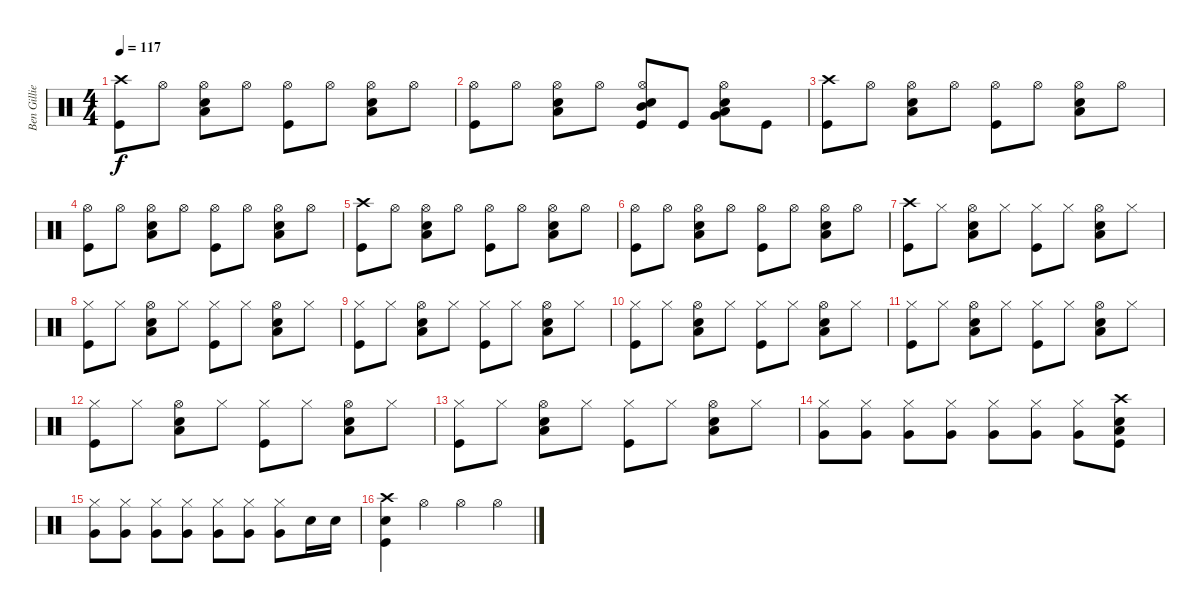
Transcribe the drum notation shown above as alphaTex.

\track ("Ben Gillies" "Ben Gillie") {instrument percussion}
\staff {score}
\articulation defaults
\ts (4 4)
\tempo 117
\clef neutral
\ks c
("Crash high (hit)" "Kick (hit)").8{dy f} "Hi-Hat (open)".8 ("Snare (hit) 2" "Hi-Hat (open)" "Low Tom (hit)").8 "Hi-Hat (open)".8 ("Hi-Hat (open)" "Kick (hit)").8 "Hi-Hat (open)".8 ("Snare (hit) 2" "Hi-Hat (open)" "Low Tom (hit)").8 "Hi-Hat (open)".8 |
("Hi-Hat (open)" "Kick (hit)").8 "Hi-Hat (open)".8 ("Snare (hit) 2" "Hi-Hat (open)" "Low Tom (hit)").8 "Hi-Hat (open)".8 ("Mid Tom (hit)" "Snare (hit) 2" "Hi-Hat (open)" "Kick (hit)").8 "Kick (hit)".8 ("Very Low Tom (hit)" "Snare (hit) 2" "Hi-Hat (open)" "Low Tom (hit)").8 "Kick (hit)".8 |
("Crash high (hit)" "Kick (hit)").8 "Hi-Hat (open)".8 ("Snare (hit) 2" "Hi-Hat (open)" "Low Tom (hit)").8 "Hi-Hat (open)".8 ("Hi-Hat (open)" "Kick (hit)").8 "Hi-Hat (open)".8 ("Snare (hit) 2" "Hi-Hat (open)" "Low Tom (hit)").8 "Hi-Hat (open)".8 |
("Hi-Hat (open)" "Kick (hit)").8 "Hi-Hat (open)".8 ("Snare (hit) 2" "Hi-Hat (open)" "Low Tom (hit)").8 "Hi-Hat (open)".8 ("Hi-Hat (open)" "Kick (hit)").8 "Hi-Hat (open)".8 ("Snare (hit) 2" "Hi-Hat (open)" "Low Tom (hit)").8 "Hi-Hat (open)".8 |
("Crash high (hit)" "Kick (hit)").8 "Hi-Hat (open)".8 ("Snare (hit) 2" "Hi-Hat (open)" "Low Tom (hit)").8 "Hi-Hat (open)".8 ("Hi-Hat (open)" "Kick (hit)").8 "Hi-Hat (open)".8 ("Snare (hit) 2" "Hi-Hat (open)" "Low Tom (hit)").8 "Hi-Hat (open)".8 |
("Hi-Hat (open)" "Kick (hit)").8 "Hi-Hat (open)".8 ("Snare (hit) 2" "Hi-Hat (open)" "Low Tom (hit)").8 "Hi-Hat (open)".8 ("Hi-Hat (open)" "Kick (hit)").8 "Hi-Hat (open)".8 ("Snare (hit) 2" "Hi-Hat (open)" "Low Tom (hit)").8 "Hi-Hat (open)".8 |
("Crash high (hit)" "Kick (hit)").8 "Hi-Hat (closed)".8 ("Snare (hit) 2" "Hi-Hat (open)" "Low Tom (hit)").8 "Hi-Hat (closed)".8 ("Hi-Hat (closed)" "Kick (hit)").8 "Hi-Hat (closed)".8 ("Snare (hit) 2" "Hi-Hat (open)" "Low Tom (hit)").8 "Hi-Hat (closed)".8 |
("Hi-Hat (closed)" "Kick (hit)").8 "Hi-Hat (closed)".8 ("Snare (hit) 2" "Hi-Hat (open)" "Low Tom (hit)").8 "Hi-Hat (closed)".8 ("Hi-Hat (closed)" "Kick (hit)").8 "Hi-Hat (closed)".8 ("Snare (hit) 2" "Hi-Hat (open)" "Low Tom (hit)").8 "Hi-Hat (closed)".8 |
("Hi-Hat (closed)" "Kick (hit)").8 "Hi-Hat (closed)".8 ("Snare (hit) 2" "Hi-Hat (open)" "Low Tom (hit)").8 "Hi-Hat (closed)".8 ("Hi-Hat (closed)" "Kick (hit)").8 "Hi-Hat (closed)".8 ("Snare (hit) 2" "Hi-Hat (open)" "Low Tom (hit)").8 "Hi-Hat (closed)".8 |
("Hi-Hat (closed)" "Kick (hit)").8 "Hi-Hat (closed)".8 ("Snare (hit) 2" "Hi-Hat (open)" "Low Tom (hit)").8 "Hi-Hat (closed)".8 ("Hi-Hat (closed)" "Kick (hit)").8 "Hi-Hat (closed)".8 ("Snare (hit) 2" "Hi-Hat (open)" "Low Tom (hit)").8 "Hi-Hat (closed)".8 |
("Hi-Hat (closed)" "Kick (hit)").8 "Hi-Hat (closed)".8 ("Snare (hit) 2" "Hi-Hat (open)" "Low Tom (hit)").8 "Hi-Hat (closed)".8 ("Hi-Hat (closed)" "Kick (hit)").8 "Hi-Hat (closed)".8 ("Snare (hit) 2" "Hi-Hat (open)" "Low Tom (hit)").8 "Hi-Hat (closed)".8 |
("Hi-Hat (closed)" "Kick (hit)").8 "Hi-Hat (closed)".8 ("Snare (hit) 2" "Hi-Hat (open)" "Low Tom (hit)").8 "Hi-Hat (closed)".8 ("Hi-Hat (closed)" "Kick (hit)").8 "Hi-Hat (closed)".8 ("Snare (hit) 2" "Hi-Hat (open)" "Low Tom (hit)").8 "Hi-Hat (closed)".8 |
("Hi-Hat (closed)" "Kick (hit)").8 "Hi-Hat (closed)".8 ("Snare (hit) 2" "Hi-Hat (open)" "Low Tom (hit)").8 "Hi-Hat (closed)".8 ("Hi-Hat (closed)" "Kick (hit)").8 "Hi-Hat (closed)".8 ("Snare (hit) 2" "Hi-Hat (open)" "Low Tom (hit)").8 "Hi-Hat (closed)".8 |
("Hi-Hat (closed)" "Very Low Tom (hit)").8 ("Hi-Hat (closed)" "Very Low Tom (hit)").8 ("Hi-Hat (closed)" "Very Low Tom (hit)").8 ("Hi-Hat (closed)" "Very Low Tom (hit)").8 ("Hi-Hat (closed)" "Very Low Tom (hit)").8 ("Hi-Hat (closed)" "Very Low Tom (hit)").8 ("Hi-Hat (closed)" "Very Low Tom (hit)").8 ("Crash high (hit)" "Snare (hit) 2" "Low Tom (hit)" "Kick (hit)").8 |
("Hi-Hat (closed)" "Very Low Tom (hit)").8 ("Hi-Hat (closed)" "Very Low Tom (hit)").8 ("Hi-Hat (closed)" "Very Low Tom (hit)").8 ("Hi-Hat (closed)" "Very Low Tom (hit)").8 ("Hi-Hat (closed)" "Very Low Tom (hit)").8 ("Hi-Hat (closed)" "Very Low Tom (hit)").8 ("Hi-Hat (closed)" "Very Low Tom (hit)").8 "Snare (hit) 2".16 "Snare (hit) 2".16 |
("Snare (hit) 2" "Crash high (hit)" "Kick (hit)").4 "Hi-Hat (open)".4 "Hi-Hat (open)".4 "Hi-Hat (open)".4
